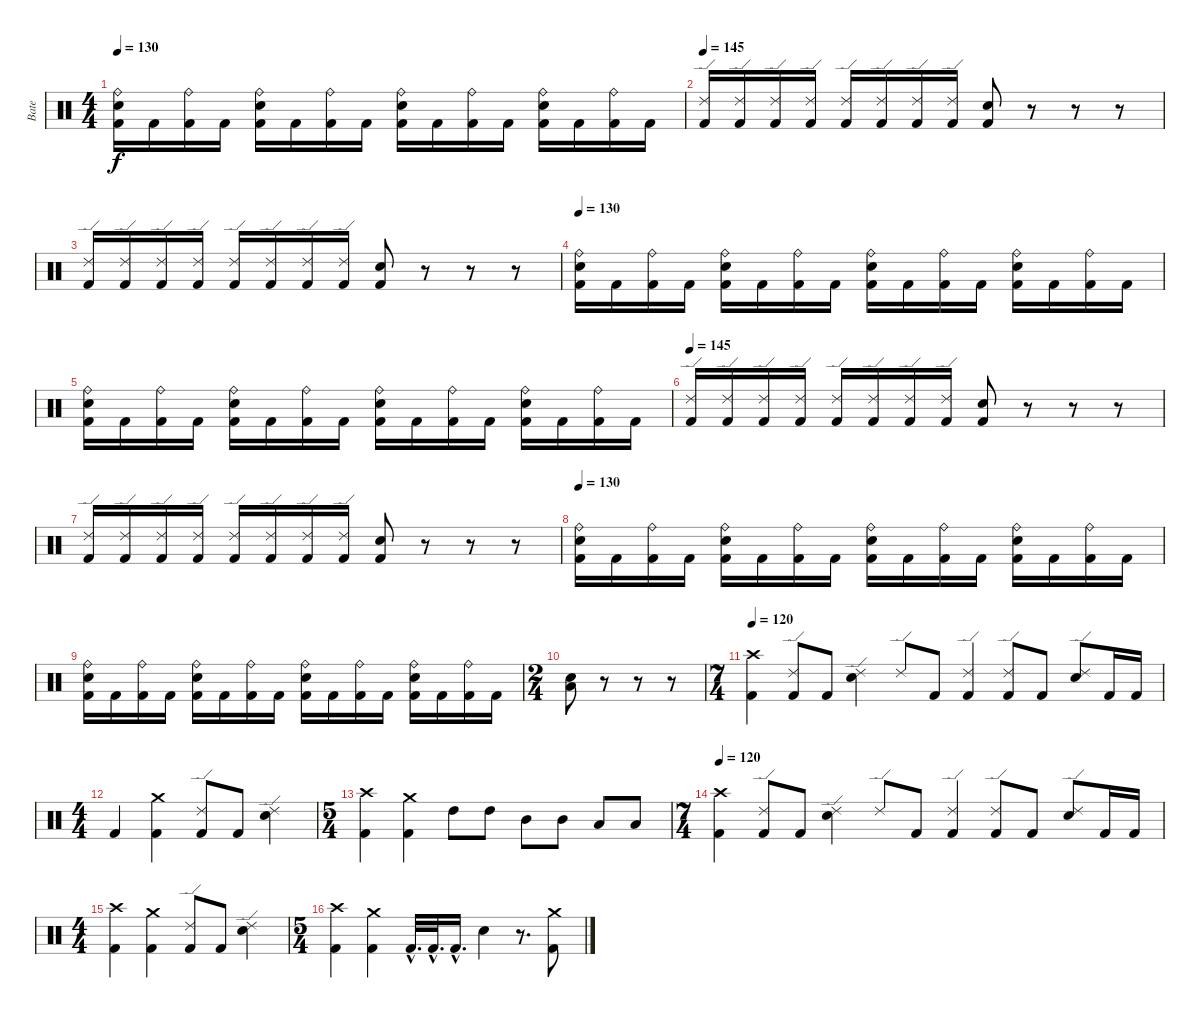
\track ("Bate" "Bate") {instrument percussion}
\staff {score}
\articulation defaults
\ts (4 4)
\tempo 130
\clef neutral
\ks c
("Ride (bell)" "Snare (hit) 2" "Kick (hit) 2").16{dy f} "Kick (hit) 2".16 ("Ride (bell)" "Kick (hit) 2").16 "Kick (hit) 2".16 ("Ride (bell)" "Snare (hit) 2" "Kick (hit) 2").16 "Kick (hit) 2".16 ("Ride (bell)" "Kick (hit) 2").16 "Kick (hit) 2".16 ("Ride (bell)" "Snare (hit) 2" "Kick (hit) 2").16 "Kick (hit) 2".16 ("Ride (bell)" "Kick (hit) 2").16 "Kick (hit) 2".16 ("Ride (bell)" "Snare (hit) 2" "Kick (hit) 2").16 "Kick (hit) 2".16 ("Ride (bell)" "Kick (hit) 2").16 "Kick (hit) 2".16 |
\tempo 145
("Ride (edge) 2" "Kick (hit) 2").16 ("Ride (edge) 2" "Kick (hit) 2").16 ("Ride (edge) 2" "Kick (hit) 2").16 ("Ride (edge) 2" "Kick (hit) 2").16 ("Ride (edge) 2" "Kick (hit) 2").16 ("Ride (edge) 2" "Kick (hit) 2").16 ("Ride (edge) 2" "Kick (hit) 2").16 ("Ride (edge) 2" "Kick (hit) 2").16 ("Snare (hit) 2" "Kick (hit) 2").8 r.8 r.8 r.8 |
("Ride (edge) 2" "Kick (hit) 2").16 ("Ride (edge) 2" "Kick (hit) 2").16 ("Ride (edge) 2" "Kick (hit) 2").16 ("Ride (edge) 2" "Kick (hit) 2").16 ("Ride (edge) 2" "Kick (hit) 2").16 ("Ride (edge) 2" "Kick (hit) 2").16 ("Ride (edge) 2" "Kick (hit) 2").16 ("Ride (edge) 2" "Kick (hit) 2").16 ("Snare (hit) 2" "Kick (hit) 2").8 r.8 r.8 r.8 |
\tempo 130
("Ride (bell)" "Snare (hit) 2" "Kick (hit) 2").16 "Kick (hit) 2".16 ("Ride (bell)" "Kick (hit) 2").16 "Kick (hit) 2".16 ("Ride (bell)" "Snare (hit) 2" "Kick (hit) 2").16 "Kick (hit) 2".16 ("Ride (bell)" "Kick (hit) 2").16 "Kick (hit) 2".16 ("Ride (bell)" "Snare (hit) 2" "Kick (hit) 2").16 "Kick (hit) 2".16 ("Ride (bell)" "Kick (hit) 2").16 "Kick (hit) 2".16 ("Ride (bell)" "Snare (hit) 2" "Kick (hit) 2").16 "Kick (hit) 2".16 ("Ride (bell)" "Kick (hit) 2").16 "Kick (hit) 2".16 |
("Ride (bell)" "Snare (hit) 2" "Kick (hit) 2").16 "Kick (hit) 2".16 ("Ride (bell)" "Kick (hit) 2").16 "Kick (hit) 2".16 ("Ride (bell)" "Snare (hit) 2" "Kick (hit) 2").16 "Kick (hit) 2".16 ("Ride (bell)" "Kick (hit) 2").16 "Kick (hit) 2".16 ("Ride (bell)" "Snare (hit) 2" "Kick (hit) 2").16 "Kick (hit) 2".16 ("Ride (bell)" "Kick (hit) 2").16 "Kick (hit) 2".16 ("Ride (bell)" "Snare (hit) 2" "Kick (hit) 2").16 "Kick (hit) 2".16 ("Ride (bell)" "Kick (hit) 2").16 "Kick (hit) 2".16 |
\tempo 145
("Ride (edge) 2" "Kick (hit) 2").16 ("Ride (edge) 2" "Kick (hit) 2").16 ("Ride (edge) 2" "Kick (hit) 2").16 ("Ride (edge) 2" "Kick (hit) 2").16 ("Ride (edge) 2" "Kick (hit) 2").16 ("Ride (edge) 2" "Kick (hit) 2").16 ("Ride (edge) 2" "Kick (hit) 2").16 ("Ride (edge) 2" "Kick (hit) 2").16 ("Snare (hit) 2" "Kick (hit) 2").8 r.8 r.8 r.8 |
("Ride (edge) 2" "Kick (hit) 2").16 ("Ride (edge) 2" "Kick (hit) 2").16 ("Ride (edge) 2" "Kick (hit) 2").16 ("Ride (edge) 2" "Kick (hit) 2").16 ("Ride (edge) 2" "Kick (hit) 2").16 ("Ride (edge) 2" "Kick (hit) 2").16 ("Ride (edge) 2" "Kick (hit) 2").16 ("Ride (edge) 2" "Kick (hit) 2").16 ("Snare (hit) 2" "Kick (hit) 2").8 r.8 r.8 r.8 |
\tempo 130
("Ride (bell)" "Snare (hit) 2" "Kick (hit) 2").16 "Kick (hit) 2".16 ("Ride (bell)" "Kick (hit) 2").16 "Kick (hit) 2".16 ("Ride (bell)" "Snare (hit) 2" "Kick (hit) 2").16 "Kick (hit) 2".16 ("Ride (bell)" "Kick (hit) 2").16 "Kick (hit) 2".16 ("Ride (bell)" "Snare (hit) 2" "Kick (hit) 2").16 "Kick (hit) 2".16 ("Ride (bell)" "Kick (hit) 2").16 "Kick (hit) 2".16 ("Ride (bell)" "Snare (hit) 2" "Kick (hit) 2").16 "Kick (hit) 2".16 ("Ride (bell)" "Kick (hit) 2").16 "Kick (hit) 2".16 |
("Ride (bell)" "Snare (hit) 2" "Kick (hit) 2").16 "Kick (hit) 2".16 ("Ride (bell)" "Kick (hit) 2").16 "Kick (hit) 2".16 ("Ride (bell)" "Snare (hit) 2" "Kick (hit) 2").16 "Kick (hit) 2".16 ("Ride (bell)" "Kick (hit) 2").16 "Kick (hit) 2".16 ("Ride (bell)" "Snare (hit) 2" "Kick (hit) 2").16 "Kick (hit) 2".16 ("Ride (bell)" "Kick (hit) 2").16 "Kick (hit) 2".16 ("Ride (bell)" "Snare (hit) 2" "Kick (hit) 2").16 "Kick (hit) 2".16 ("Ride (bell)" "Kick (hit) 2").16 "Kick (hit) 2".16 |
\ts (2 4)
("Low Floor Tom (hit)" "Snare (hit) 2").8 r.8 r.8 r.8 |
\ts (7 4)
\tempo 120
("Crash high (hit)" "Kick (hit) 2").4 ("Ride (edge) 2" "Kick (hit) 2").8 "Kick (hit) 2".8 ("Ride (edge) 2" "Snare (hit) 2").4 "Ride (edge) 2".8 "Kick (hit) 2".8 ("Ride (edge) 2" "Kick (hit) 2").4 ("Ride (edge) 2" "Kick (hit) 2").8 "Kick (hit) 2".8 ("Ride (edge) 2" "Snare (hit) 2").8 "Kick (hit) 2".16 "Kick (hit) 2".16 |
\ts (4 4)
"Kick (hit) 2".4 ("Crash medium (hit)" "Kick (hit) 2").4 ("Ride (edge) 2" "Kick (hit) 2").8 "Kick (hit) 2".8 ("Ride (edge) 2" "Snare (hit) 2").4 |
\ts (5 4)
("Crash high (hit)" "Kick (hit) 2").4 ("Crash medium (hit)" "Kick (hit) 2").4 "High Tom (hit)".8 "High Tom (hit)".8 "Mid Tom (hit)".8 "Mid Tom (hit)".8 "Low Floor Tom (hit)".8 "Low Floor Tom (hit)".8 |
\ts (7 4)
\tempo 120
("Crash high (hit)" "Kick (hit) 2").4 ("Ride (edge) 2" "Kick (hit) 2").8 "Kick (hit) 2".8 ("Ride (edge) 2" "Snare (hit) 2").4 "Ride (edge) 2".8 "Kick (hit) 2".8 ("Ride (edge) 2" "Kick (hit) 2").4 ("Ride (edge) 2" "Kick (hit) 2").8 "Kick (hit) 2".8 ("Ride (edge) 2" "Snare (hit) 2").8 "Kick (hit) 2".16 "Kick (hit) 2".16 |
\ts (4 4)
("Crash high (hit)" "Kick (hit) 2").4 ("Crash medium (hit)" "Kick (hit) 2").4 ("Ride (edge) 2" "Kick (hit) 2").8 "Kick (hit) 2".8 ("Ride (edge) 2" "Snare (hit) 2").4 |
\ts (5 4)
("Crash high (hit)" "Kick (hit) 2").4 ("Crash medium (hit)" "Kick (hit) 2").4 "Kick (hit) 2"{hac}.32{d} "Kick (hit) 2"{hac}.32{d} "Kick (hit) 2"{hac}.16{d} "Snare (hit) 2".4 r.8{d} ("Crash medium (hit)" "Kick (hit) 2").8
